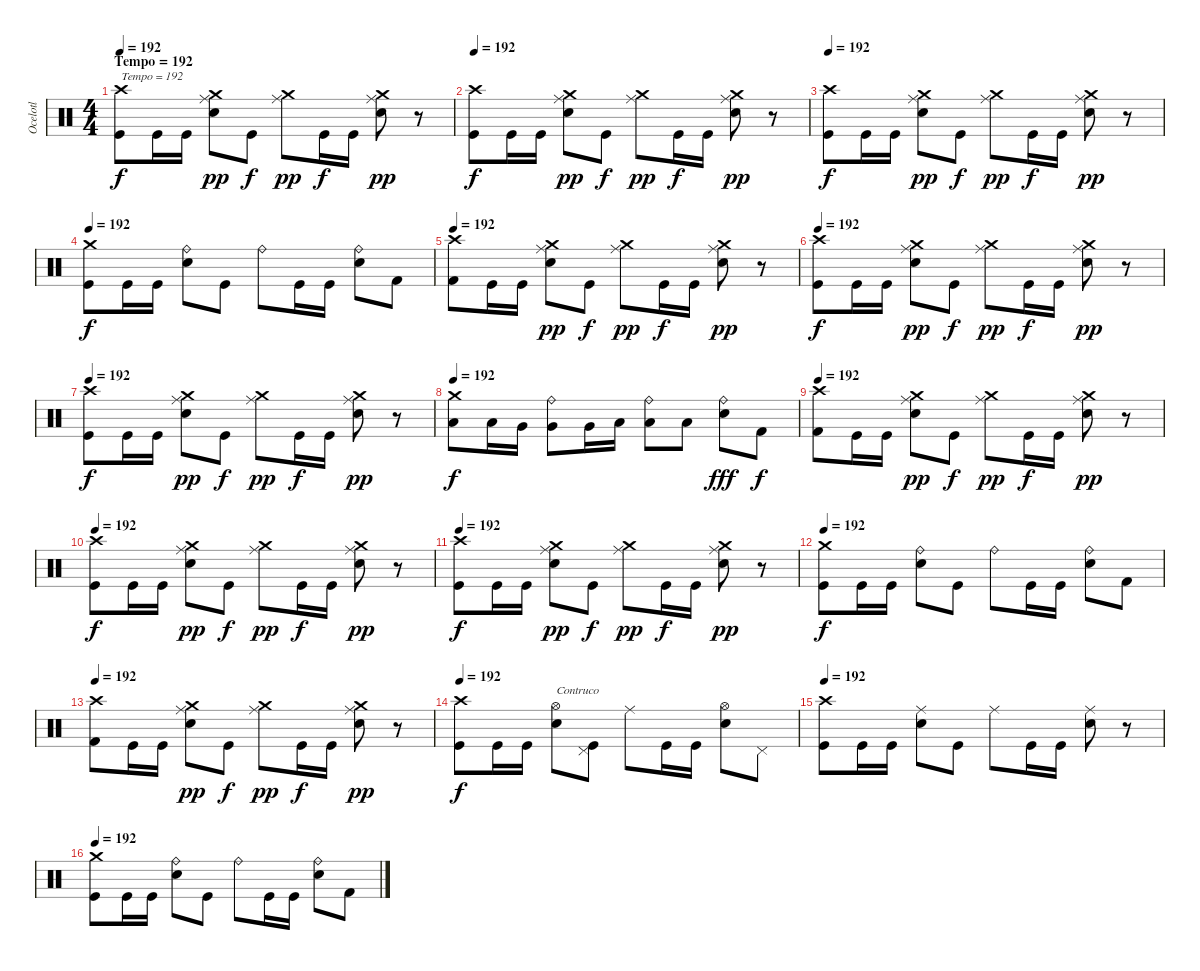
\track ("Ocelotl" "Ocelotl") {instrument percussion}
\staff {score}
\articulation defaults
\ts (4 4)
\section ("" "Tempo = 192")
\tempo 192
\clef neutral
\ks c
("Crash high (hit)" "Kick (hit)").8{txt "Tempo = 192" dy f} "Kick (hit)".16 "Kick (hit)".16 ("Crash medium (hit)" "Ride (middle)" "Snare (hit) 2").8{dy pp} "Kick (hit)".8{dy f} ("Crash medium (hit)" "Ride (middle)").8{dy pp} "Kick (hit)".16{dy f} "Kick (hit)".16 ("Crash medium (hit)" "Ride (middle)" "Snare (hit) 2").8{dy pp} r.8 |
\tempo 192
("Crash high (hit)" "Kick (hit)").8{dy f} "Kick (hit)".16 "Kick (hit)".16 ("Crash medium (hit)" "Ride (middle)" "Snare (hit) 2").8{dy pp} "Kick (hit)".8{dy f} ("Crash medium (hit)" "Ride (middle)").8{dy pp} "Kick (hit)".16{dy f} "Kick (hit)".16 ("Crash medium (hit)" "Ride (middle)" "Snare (hit) 2").8{dy pp} r.8 |
\tempo 192
("Crash high (hit)" "Kick (hit)").8{dy f} "Kick (hit)".16 "Kick (hit)".16 ("Crash medium (hit)" "Ride (middle)" "Snare (hit) 2").8{dy pp} "Kick (hit)".8{dy f} ("Crash medium (hit)" "Ride (middle)").8{dy pp} "Kick (hit)".16{dy f} "Kick (hit)".16 ("Crash medium (hit)" "Ride (middle)" "Snare (hit) 2").8{dy pp} r.8 |
\tempo 192
("Crash medium (hit)" "Kick (hit)").8{dy f} "Kick (hit)".16 "Kick (hit)".16 ("Ride (bell)" "Snare (hit) 2").8 "Kick (hit)".8 "Ride (bell)".8 "Kick (hit)".16 "Kick (hit)".16 ("Ride (bell)" "Snare (hit) 2").8 "Kick (hit) 2".8 |
\tempo 192
("Crash high (hit)" "Kick (hit) 2").8 "Kick (hit)".16 "Kick (hit)".16 ("Crash medium (hit)" "Ride (middle)" "Snare (hit) 2").8{dy pp} "Kick (hit)".8{dy f} ("Crash medium (hit)" "Ride (middle)").8{dy pp} "Kick (hit)".16{dy f} "Kick (hit)".16 ("Crash medium (hit)" "Ride (middle)" "Snare (hit) 2").8{dy pp} r.8 |
\tempo 192
("Crash high (hit)" "Kick (hit)").8{dy f} "Kick (hit)".16 "Kick (hit)".16 ("Crash medium (hit)" "Ride (middle)" "Snare (hit) 2").8{dy pp} "Kick (hit)".8{dy f} ("Crash medium (hit)" "Ride (middle)").8{dy pp} "Kick (hit)".16{dy f} "Kick (hit)".16 ("Crash medium (hit)" "Ride (middle)" "Snare (hit) 2").8{dy pp} r.8 |
\tempo 192
("Crash high (hit)" "Kick (hit)").8{dy f} "Kick (hit)".16 "Kick (hit)".16 ("Crash medium (hit)" "Ride (middle)" "Snare (hit) 2").8{dy pp} "Kick (hit)".8{dy f} ("Crash medium (hit)" "Ride (middle)").8{dy pp} "Kick (hit)".16{dy f} "Kick (hit)".16 ("Crash medium (hit)" "Ride (middle)" "Snare (hit) 2").8{dy pp} r.8 |
\tempo 192
("Crash medium (hit)" "Low Tom (hit)").8{dy f} "Low Tom (hit)".16 "Very Low Tom (hit)".16 ("Ride (bell)" "Very Low Tom (hit)").8 "Very Low Tom (hit)".16 "Low Floor Tom (hit)".16 ("Ride (bell)" "Low Floor Tom (hit)").8 "Low Floor Tom (hit)".8 ("Ride (bell)" "Snare (hit) 2").8{dy fff} "Kick (hit) 2".8{dy f} |
\tempo 192
("Crash high (hit)" "Kick (hit) 2").8 "Kick (hit)".16 "Kick (hit)".16 ("Crash medium (hit)" "Ride (middle)" "Snare (hit) 2").8{dy pp} "Kick (hit)".8{dy f} ("Crash medium (hit)" "Ride (middle)").8{dy pp} "Kick (hit)".16{dy f} "Kick (hit)".16 ("Crash medium (hit)" "Ride (middle)" "Snare (hit) 2").8{dy pp} r.8 |
\tempo 192
("Crash high (hit)" "Kick (hit)").8{dy f} "Kick (hit)".16 "Kick (hit)".16 ("Crash medium (hit)" "Ride (middle)" "Snare (hit) 2").8{dy pp} "Kick (hit)".8{dy f} ("Crash medium (hit)" "Ride (middle)").8{dy pp} "Kick (hit)".16{dy f} "Kick (hit)".16 ("Crash medium (hit)" "Ride (middle)" "Snare (hit) 2").8{dy pp} r.8 |
\tempo 192
("Crash high (hit)" "Kick (hit)").8{dy f} "Kick (hit)".16 "Kick (hit)".16 ("Crash medium (hit)" "Ride (middle)" "Snare (hit) 2").8{dy pp} "Kick (hit)".8{dy f} ("Crash medium (hit)" "Ride (middle)").8{dy pp} "Kick (hit)".16{dy f} "Kick (hit)".16 ("Crash medium (hit)" "Ride (middle)" "Snare (hit) 2").8{dy pp} r.8 |
\tempo 192
("Crash medium (hit)" "Kick (hit)").8{dy f} "Kick (hit)".16 "Kick (hit)".16 ("Ride (bell)" "Snare (hit) 2").8 "Kick (hit)".8 "Ride (bell)".8 "Kick (hit)".16 "Kick (hit)".16 ("Ride (bell)" "Snare (hit) 2").8 "Kick (hit) 2".8 |
\tempo 192
("Crash high (hit)" "Kick (hit) 2").8 "Kick (hit)".16 "Kick (hit)".16 ("Crash medium (hit)" "Ride (middle)" "Snare (hit) 2").8{dy pp} "Kick (hit)".8{dy f} ("Crash medium (hit)" "Ride (middle)").8{dy pp} "Kick (hit)".16{dy f} "Kick (hit)".16 ("Crash medium (hit)" "Ride (middle)" "Snare (hit) 2").8{dy pp} r.8 |
\tempo 192
("Crash high (hit)" "Kick (hit)").8{dy f} "Kick (hit)".16 "Kick (hit)".16 ("Hi-Hat (open)" "Snare (hit) 2").8{txt "Contruco"} ("Pedal Hi-Hat (hit)" "Kick (hit)").8 "Ride (middle)".8 "Kick (hit)".16 "Kick (hit)".16 ("Hi-Hat (open)" "Snare (hit) 2").8 "Pedal Hi-Hat (hit)".8 |
\tempo 192
("Crash high (hit)" "Kick (hit)").8 "Kick (hit)".16 "Kick (hit)".16 ("Ride (middle)" "Snare (hit) 2").8 "Kick (hit)".8 "Ride (middle)".8 "Kick (hit)".16 "Kick (hit)".16 ("Ride (middle)" "Snare (hit) 2").8 r.8 |
\tempo 192
("Crash medium (hit)" "Kick (hit)").8 "Kick (hit)".16 "Kick (hit)".16 ("Ride (bell)" "Snare (hit) 2").8 "Kick (hit)".8 "Ride (bell)".8 "Kick (hit)".16 "Kick (hit)".16 ("Ride (bell)" "Snare (hit) 2").8 "Kick (hit) 2".8
